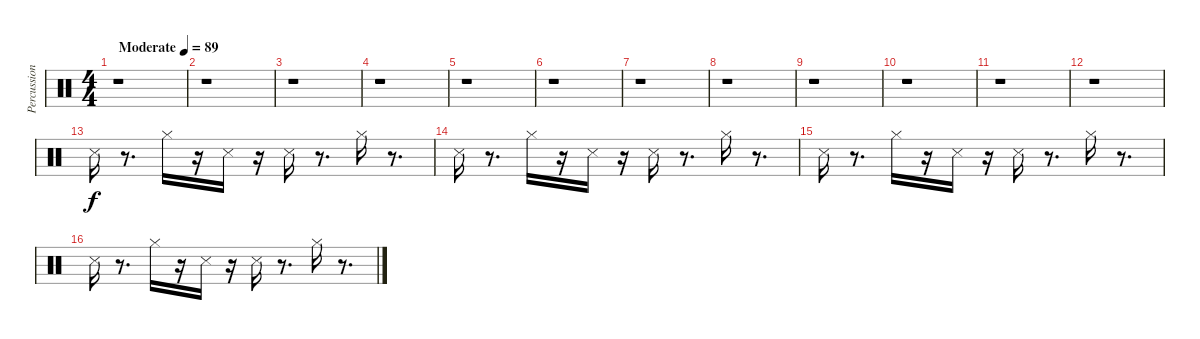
\track ("Percussion" "Percussion") {instrument percussion}
\staff {score}
\articulation defaults
\ts (4 4)
\tempo (89 "Moderate")
\clef neutral
\ks c
r.1{dy f} |
r.1 |
r.1 |
r.1 |
r.1 |
r.1 |
r.1 |
r.1 |
r.1 |
r.1 |
r.1 |
r.1 |
"Metronome (hit)".16 r.8{d} "Hi-Hat (closed)".16 r.16 "Metronome (hit)".16 r.16 "Metronome (hit)".16 r.8{d} "Hi-Hat (closed)".16 r.8{d} |
"Metronome (hit)".16 r.8{d} "Hi-Hat (closed)".16 r.16 "Metronome (hit)".16 r.16 "Metronome (hit)".16 r.8{d} "Hi-Hat (closed)".16 r.8{d} |
"Metronome (hit)".16 r.8{d} "Hi-Hat (closed)".16 r.16 "Metronome (hit)".16 r.16 "Metronome (hit)".16 r.8{d} "Hi-Hat (closed)".16 r.8{d} |
"Metronome (hit)".16 r.8{d} "Hi-Hat (closed)".16 r.16 "Metronome (hit)".16 r.16 "Metronome (hit)".16 r.8{d} "Hi-Hat (closed)".16 r.8{d}
